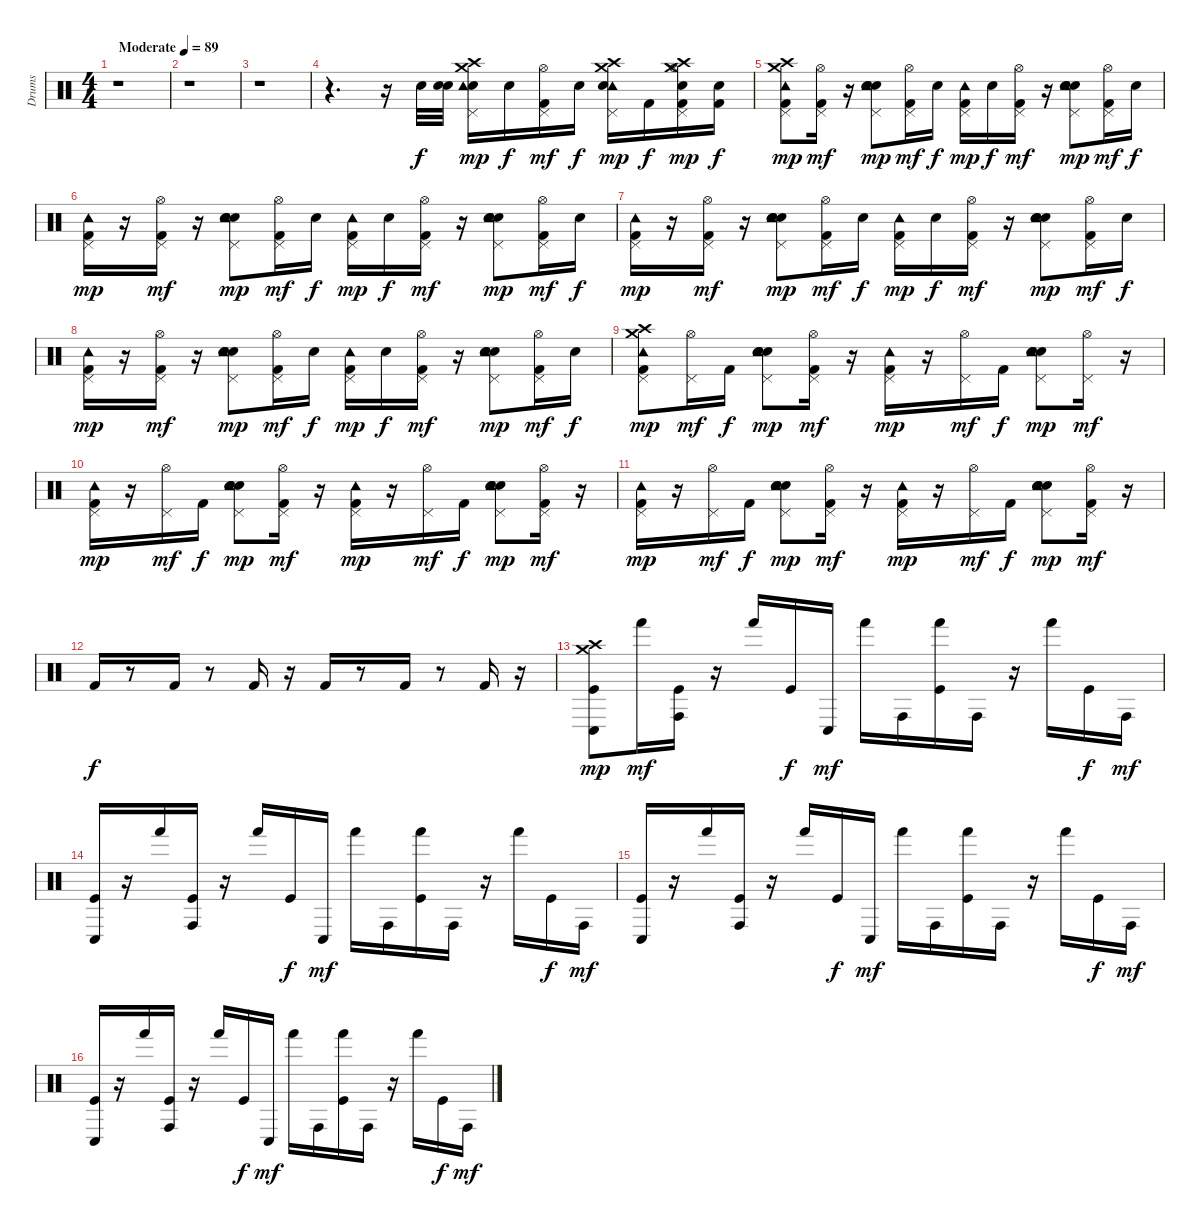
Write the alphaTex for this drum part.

\track ("Drums" "Drums") {instrument percussion}
\staff {score}
\articulation defaults
\ts (4 4)
\tempo (89 "Moderate")
\clef neutral
\ks c
r.1{dy f} |
r.1 |
r.1 |
r.4{d} r.16 "Electric Snare (hit)".32 ("Electric Snare (hit)" "Electric Snare (hit)").32 ("Crash high (hit)" "Crash medium (hit)" "Electric Snare (hit)" "Tambourine (hit)" "Pedal Hi-Hat (hit)").16{dy mp} "Electric Snare (hit)".16{dy f} ("Kick (hit) 2" "Hi-Hat (open)" "Pedal Hi-Hat (hit)").16{dy mf} "Electric Snare (hit)".16{dy f} ("Crash high (hit)" "Crash medium (hit)" "Tambourine (hit)" "Pedal Hi-Hat (hit)" "Electric Snare (hit)").16{dy mp} "Kick (hit) 2".16{dy f} ("Kick (hit) 2" "Hi-Hat (open)" "Pedal Hi-Hat (hit)" "Crash high (hit)" "Crash medium (hit)" "Electric Snare (hit)").16{dy mp} ("Kick (hit) 2" "Electric Snare (hit)").16{dy f} |
("Kick (hit) 2" "Tambourine (hit)" "Crash high (hit)" "Crash medium (hit)" "Pedal Hi-Hat (hit)").8{dy mp} ("Kick (hit) 2" "Hi-Hat (open)" "Pedal Hi-Hat (hit)").16{dy mf} r.16 ("Electric Snare (hit)" "Snare (hit) 2" "Hand Clap (hit)" "Tambourine (hit)" "Pedal Hi-Hat (hit)").8{dy mp} ("Kick (hit) 2" "Hi-Hat (open)" "Pedal Hi-Hat (hit)").16{dy mf} "Snare (hit) 2".16{dy f} ("Kick (hit) 2" "Tambourine (hit)" "Pedal Hi-Hat (hit)").16{dy mp} "Snare (hit) 2".16{dy f} ("Kick (hit) 2" "Hi-Hat (open)" "Pedal Hi-Hat (hit)").16{dy mf} r.16 ("Electric Snare (hit)" "Snare (hit) 2" "Hand Clap (hit)" "Tambourine (hit)" "Pedal Hi-Hat (hit)").8{dy mp} ("Kick (hit) 2" "Hi-Hat (open)" "Pedal Hi-Hat (hit)").16{dy mf} "Snare (hit) 2".16{dy f} |
("Kick (hit) 2" "Tambourine (hit)" "Pedal Hi-Hat (hit)").16{dy mp} r.16 ("Kick (hit) 2" "Hi-Hat (open)" "Pedal Hi-Hat (hit)").16{dy mf} r.16 ("Electric Snare (hit)" "Hand Clap (hit)" "Snare (hit) 2" "Tambourine (hit)" "Pedal Hi-Hat (hit)").8{dy mp} ("Kick (hit) 2" "Hi-Hat (open)" "Pedal Hi-Hat (hit)").16{dy mf} "Snare (hit) 2".16{dy f} ("Kick (hit) 2" "Tambourine (hit)" "Pedal Hi-Hat (hit)").16{dy mp} "Snare (hit) 2".16{dy f} ("Kick (hit) 2" "Hi-Hat (open)" "Pedal Hi-Hat (hit)").16{dy mf} r.16 ("Electric Snare (hit)" "Hand Clap (hit)" "Snare (hit) 2" "Tambourine (hit)" "Pedal Hi-Hat (hit)").8{dy mp} ("Kick (hit) 2" "Hi-Hat (open)" "Pedal Hi-Hat (hit)").16{dy mf} "Snare (hit) 2".16{dy f} |
("Kick (hit) 2" "Tambourine (hit)" "Pedal Hi-Hat (hit)").16{dy mp} r.16 ("Kick (hit) 2" "Hi-Hat (open)" "Pedal Hi-Hat (hit)").16{dy mf} r.16 ("Electric Snare (hit)" "Hand Clap (hit)" "Snare (hit) 2" "Tambourine (hit)" "Pedal Hi-Hat (hit)").8{dy mp} ("Kick (hit) 2" "Hi-Hat (open)" "Pedal Hi-Hat (hit)").16{dy mf} "Snare (hit) 2".16{dy f} ("Kick (hit) 2" "Tambourine (hit)" "Pedal Hi-Hat (hit)").16{dy mp} "Snare (hit) 2".16{dy f} ("Kick (hit) 2" "Hi-Hat (open)" "Pedal Hi-Hat (hit)").16{dy mf} r.16 ("Electric Snare (hit)" "Hand Clap (hit)" "Snare (hit) 2" "Tambourine (hit)" "Pedal Hi-Hat (hit)").8{dy mp} ("Kick (hit) 2" "Hi-Hat (open)" "Pedal Hi-Hat (hit)").16{dy mf} "Snare (hit) 2".16{dy f} |
("Kick (hit) 2" "Tambourine (hit)" "Pedal Hi-Hat (hit)").16{dy mp} r.16 ("Kick (hit) 2" "Hi-Hat (open)" "Pedal Hi-Hat (hit)").16{dy mf} r.16 ("Electric Snare (hit)" "Hand Clap (hit)" "Snare (hit) 2" "Tambourine (hit)" "Pedal Hi-Hat (hit)").8{dy mp} ("Kick (hit) 2" "Hi-Hat (open)" "Pedal Hi-Hat (hit)").16{dy mf} "Snare (hit) 2".16{dy f} ("Kick (hit) 2" "Tambourine (hit)" "Pedal Hi-Hat (hit)").16{dy mp} "Snare (hit) 2".16{dy f} ("Kick (hit) 2" "Hi-Hat (open)" "Pedal Hi-Hat (hit)").16{dy mf} r.16 ("Electric Snare (hit)" "Hand Clap (hit)" "Snare (hit) 2" "Tambourine (hit)" "Pedal Hi-Hat (hit)").8{dy mp} ("Kick (hit) 2" "Hi-Hat (open)" "Pedal Hi-Hat (hit)").16{dy mf} "Snare (hit) 2".16{dy f} |
("Kick (hit) 2" "Tambourine (hit)" "Crash high (hit)" "Crash medium (hit)" "Pedal Hi-Hat (hit)").8{dy mp} ("Hi-Hat (open)" "Pedal Hi-Hat (hit)").16{dy mf} "Kick (hit) 2".16{dy f} ("Electric Snare (hit)" "Snare (hit) 2" "Hand Clap (hit)" "Tambourine (hit)" "Pedal Hi-Hat (hit)").8{dy mp} ("Kick (hit) 2" "Hi-Hat (open)" "Pedal Hi-Hat (hit)").16{dy mf} r.16 ("Kick (hit) 2" "Tambourine (hit)" "Pedal Hi-Hat (hit)").16{dy mp} r.16 ("Hi-Hat (open)" "Pedal Hi-Hat (hit)").16{dy mf} "Kick (hit) 2".16{dy f} ("Electric Snare (hit)" "Snare (hit) 2" "Hand Clap (hit)" "Tambourine (hit)" "Pedal Hi-Hat (hit)").8{dy mp} ("Hi-Hat (open)" "Pedal Hi-Hat (hit)").16{dy mf} r.16 |
("Kick (hit) 2" "Tambourine (hit)" "Pedal Hi-Hat (hit)").16{dy mp} r.16 ("Hi-Hat (open)" "Pedal Hi-Hat (hit)").16{dy mf} "Kick (hit) 2".16{dy f} ("Electric Snare (hit)" "Hand Clap (hit)" "Snare (hit) 2" "Tambourine (hit)" "Pedal Hi-Hat (hit)").8{dy mp} ("Kick (hit) 2" "Hi-Hat (open)" "Pedal Hi-Hat (hit)").16{dy mf} r.16 ("Kick (hit) 2" "Tambourine (hit)" "Pedal Hi-Hat (hit)").16{dy mp} r.16 ("Hi-Hat (open)" "Pedal Hi-Hat (hit)").16{dy mf} "Kick (hit) 2".16{dy f} ("Electric Snare (hit)" "Hand Clap (hit)" "Snare (hit) 2" "Tambourine (hit)" "Pedal Hi-Hat (hit)").8{dy mp} ("Kick (hit) 2" "Hi-Hat (open)" "Pedal Hi-Hat (hit)").16{dy mf} r.16 |
("Kick (hit) 2" "Tambourine (hit)" "Pedal Hi-Hat (hit)").16{dy mp} r.16 ("Hi-Hat (open)" "Pedal Hi-Hat (hit)").16{dy mf} "Kick (hit) 2".16{dy f} ("Electric Snare (hit)" "Hand Clap (hit)" "Snare (hit) 2" "Tambourine (hit)" "Pedal Hi-Hat (hit)").8{dy mp} ("Kick (hit) 2" "Hi-Hat (open)" "Pedal Hi-Hat (hit)").16{dy mf} r.16 ("Kick (hit) 2" "Tambourine (hit)" "Pedal Hi-Hat (hit)").16{dy mp} r.16 ("Hi-Hat (open)" "Pedal Hi-Hat (hit)").16{dy mf} "Kick (hit) 2".16{dy f} ("Electric Snare (hit)" "Hand Clap (hit)" "Snare (hit) 2" "Tambourine (hit)" "Pedal Hi-Hat (hit)").8{dy mp} ("Kick (hit) 2" "Hi-Hat (open)" "Pedal Hi-Hat (hit)").16{dy mf} r.16 |
"Kick (hit) 2".16{dy f} r.8 "Kick (hit) 2".16 r.8 "Kick (hit) 2".16 r.16 "Kick (hit) 2".16 r.8 "Kick (hit) 2".16 r.8 "Kick (hit) 2".16 r.16 |
("Conga low (hit)" "Kick (hit)" "Crash high (hit)" "Crash medium (hit)").8{dy mp} "Hand (hit)".16{dy mf} ("Conga high (hit)" "Kick (hit)").16 r.16 "Hand (hit)".16 "Kick (hit)".16{dy f} "Conga low (hit)".16{dy mf} "Hand (hit)".16 "Conga high (hit)".16 ("Kick (hit)" "Hand (hit)").16 "Conga high (hit)".16 r.16 "Hand (hit)".16 "Kick (hit)".16{dy f} "Conga high (hit)".16{dy mf} |
("Conga low (hit)" "Kick (hit)").16 r.16 "Hand (hit)".16 ("Conga high (hit)" "Kick (hit)").16 r.16 "Hand (hit)".16 "Kick (hit)".16{dy f} "Conga low (hit)".16{dy mf} "Hand (hit)".16 "Conga high (hit)".16 ("Kick (hit)" "Hand (hit)").16 "Conga high (hit)".16 r.16 "Hand (hit)".16 "Kick (hit)".16{dy f} "Conga high (hit)".16{dy mf} |
("Conga low (hit)" "Kick (hit)").16 r.16 "Hand (hit)".16 ("Conga high (hit)" "Kick (hit)").16 r.16 "Hand (hit)".16 "Kick (hit)".16{dy f} "Conga low (hit)".16{dy mf} "Hand (hit)".16 "Conga high (hit)".16 ("Kick (hit)" "Hand (hit)").16 "Conga high (hit)".16 r.16 "Hand (hit)".16 "Kick (hit)".16{dy f} "Conga high (hit)".16{dy mf} |
("Conga low (hit)" "Kick (hit)").16 r.16 "Hand (hit)".16 ("Conga high (hit)" "Kick (hit)").16 r.16 "Hand (hit)".16 "Kick (hit)".16{dy f} "Conga low (hit)".16{dy mf} "Hand (hit)".16 "Conga high (hit)".16 ("Kick (hit)" "Hand (hit)").16 "Conga high (hit)".16 r.16 "Hand (hit)".16 "Kick (hit)".16{dy f} "Conga high (hit)".16{dy mf}
